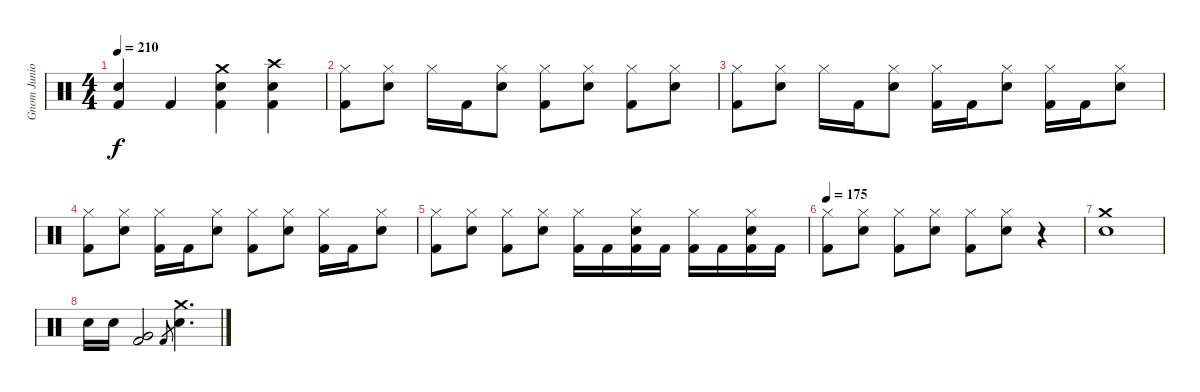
\track ("Gnom Junior" "Gnom Junio") {instrument percussion}
\staff {score}
\articulation defaults
\ts (4 4)
\tempo 210
\clef neutral
\ks c
("Electric Snare (hit)" "Kick (hit) 2").4{dy f} "Kick (hit) 2".4 ("Crash medium (hit)" "Electric Snare (hit)" "Kick (hit) 2").4 ("Crash high (hit)" "Electric Snare (hit)" "Kick (hit) 2").4 |
("Hi-Hat (closed)" "Kick (hit) 2").8 ("Hi-Hat (closed)" "Electric Snare (hit)").8 "Hi-Hat (closed)".16 "Kick (hit) 2".16 ("Hi-Hat (closed)" "Electric Snare (hit)").8 ("Hi-Hat (closed)" "Kick (hit) 2").8 ("Hi-Hat (closed)" "Electric Snare (hit)").8 ("Hi-Hat (closed)" "Kick (hit) 2").8 ("Hi-Hat (closed)" "Electric Snare (hit)").8 |
("Hi-Hat (closed)" "Kick (hit) 2").8 ("Hi-Hat (closed)" "Electric Snare (hit)").8 "Hi-Hat (closed)".16 "Kick (hit) 2".16 ("Hi-Hat (closed)" "Electric Snare (hit)").8 ("Hi-Hat (closed)" "Kick (hit) 2").16 "Kick (hit) 2".16 ("Hi-Hat (closed)" "Electric Snare (hit)").8 ("Hi-Hat (closed)" "Kick (hit) 2").16 "Kick (hit) 2".16 ("Hi-Hat (closed)" "Electric Snare (hit)").8 |
("Hi-Hat (closed)" "Kick (hit) 2").8 ("Hi-Hat (closed)" "Electric Snare (hit)").8 ("Hi-Hat (closed)" "Kick (hit) 2").16 "Kick (hit) 2".16 ("Hi-Hat (closed)" "Electric Snare (hit)").8 ("Hi-Hat (closed)" "Kick (hit) 2").8 ("Hi-Hat (closed)" "Electric Snare (hit)").8 ("Hi-Hat (closed)" "Kick (hit) 2").16 "Kick (hit) 2".16 ("Hi-Hat (closed)" "Electric Snare (hit)").8 |
("Hi-Hat (closed)" "Kick (hit) 2").8 ("Hi-Hat (closed)" "Electric Snare (hit)").8 ("Hi-Hat (closed)" "Kick (hit) 2").8 ("Hi-Hat (closed)" "Electric Snare (hit)").8 ("Hi-Hat (closed)" "Kick (hit) 2").16 "Kick (hit) 2".16 ("Hi-Hat (closed)" "Electric Snare (hit)" "Kick (hit) 2").16 "Kick (hit) 2".16 ("Hi-Hat (closed)" "Kick (hit) 2").16 "Kick (hit) 2".16 ("Hi-Hat (closed)" "Electric Snare (hit)" "Kick (hit) 2").16 "Kick (hit) 2".16 |
\tempo 175
("Hi-Hat (closed)" "Kick (hit) 2").8 ("Hi-Hat (closed)" "Electric Snare (hit)").8 ("Hi-Hat (closed)" "Kick (hit) 2").8 ("Hi-Hat (closed)" "Electric Snare (hit)").8 ("Hi-Hat (closed)" "Kick (hit) 2").8 ("Hi-Hat (closed)" "Electric Snare (hit)").8 r.4 |
("Crash medium (hit)" "Electric Snare (hit)").1 |
"Electric Snare (hit)".16 "Electric Snare (hit)".16 ("Very Low Tom (hit)" "Kick (hit) 2").2 "Kick (hit) 2".8{gr} ("Crash medium (hit)" "Electric Snare (hit)").4{d}
